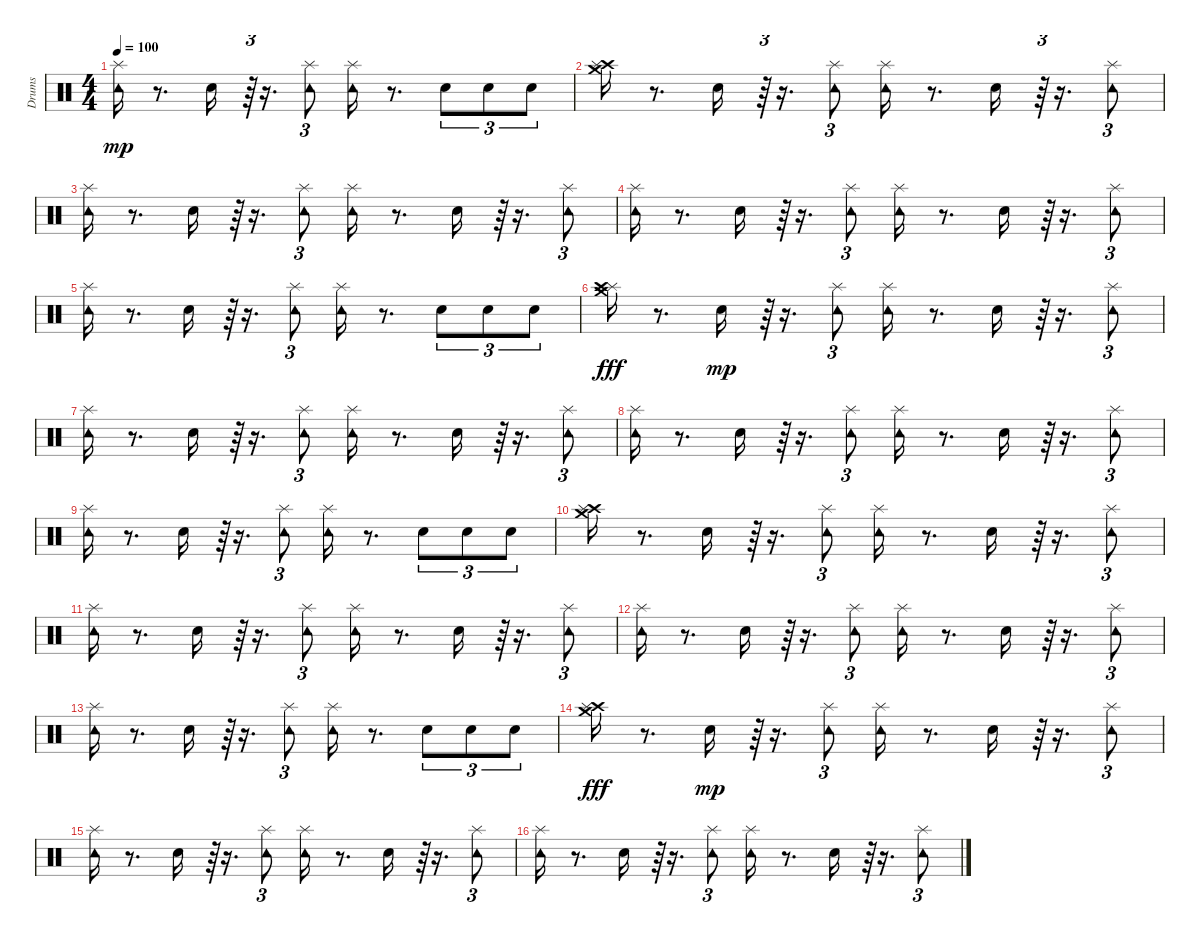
\track ("Drums" "Drums") {instrument percussion}
\staff {score}
\articulation defaults
\ts (4 4)
\tempo 100
\clef neutral
\ks c
("Tambourine (hit)" "Splash (hit)").16{dy mp} r.8{d} "Snare (hit)".16 r.64{tu (3 2)} r.16{d} ("Tambourine (hit)" "Splash (hit)").8{tu (3 2)} ("Tambourine (hit)" "Splash (hit)").16 r.8{d} "Snare (hit)".8{tu (3 2)} "Snare (hit)".8{tu (3 2)} "Snare (hit)".8{tu (3 2)} |
("Crash high (hit)" "Crash medium (hit)" "Splash (hit)").16 r.8{d} "Snare (hit)".16 r.64{tu (3 2)} r.16{d} ("Splash (hit)" "Tambourine (hit)").8{tu (3 2)} ("Splash (hit)" "Tambourine (hit)").16 r.8{d} "Snare (hit)".16 r.64{tu (3 2)} r.16{d} ("Splash (hit)" "Tambourine (hit)").8{tu (3 2)} |
("Splash (hit)" "Tambourine (hit)").16 r.8{d} "Snare (hit)".16 r.64{tu (3 2)} r.16{d} ("Splash (hit)" "Tambourine (hit)").8{tu (3 2)} ("Tambourine (hit)" "Splash (hit)").16 r.8{d} "Snare (hit)".16 r.64{tu (3 2)} r.16{d} ("Tambourine (hit)" "Splash (hit)").8{tu (3 2)} |
("Tambourine (hit)" "Splash (hit)").16 r.8{d} "Snare (hit)".16 r.64{tu (3 2)} r.16{d} ("Tambourine (hit)" "Splash (hit)").8{tu (3 2)} ("Tambourine (hit)" "Splash (hit)").16 r.8{d} "Snare (hit)".16 r.64{tu (3 2)} r.16{d} ("Tambourine (hit)" "Splash (hit)").8{tu (3 2)} |
("Splash (hit)" "Tambourine (hit)").16 r.8{d} "Snare (hit)".16 r.64{tu (3 2)} r.16{d} ("Tambourine (hit)" "Splash (hit)").8{tu (3 2)} ("Splash (hit)" "Tambourine (hit)").16 r.8{d} "Snare (hit)".8{tu (3 2)} "Snare (hit)".8{tu (3 2)} "Snare (hit)".8{tu (3 2)} |
("Splash (hit)" "Crash high (hit)" "Crash medium (hit)").16{dy fff} r.8{d} "Snare (hit)".16{dy mp} r.64{tu (3 2)} r.16{d} ("Splash (hit)" "Tambourine (hit)").8{tu (3 2)} ("Tambourine (hit)" "Splash (hit)").16 r.8{d} "Snare (hit)".16 r.64{tu (3 2)} r.16{d} ("Tambourine (hit)" "Splash (hit)").8{tu (3 2)} |
("Splash (hit)" "Tambourine (hit)").16 r.8{d} "Snare (hit)".16 r.64{tu (3 2)} r.16{d} ("Tambourine (hit)" "Splash (hit)").8{tu (3 2)} ("Splash (hit)" "Tambourine (hit)").16 r.8{d} "Snare (hit)".16 r.64{tu (3 2)} r.16{d} ("Tambourine (hit)" "Splash (hit)").8{tu (3 2)} |
("Splash (hit)" "Tambourine (hit)").16 r.8{d} "Snare (hit)".16 r.64{tu (3 2)} r.16{d} ("Splash (hit)" "Tambourine (hit)").8{tu (3 2)} ("Splash (hit)" "Tambourine (hit)").16 r.8{d} "Snare (hit)".16 r.64{tu (3 2)} r.16{d} ("Splash (hit)" "Tambourine (hit)").8{tu (3 2)} |
("Splash (hit)" "Tambourine (hit)").16 r.8{d} "Snare (hit)".16 r.64{tu (3 2)} r.16{d} ("Splash (hit)" "Tambourine (hit)").8{tu (3 2)} ("Splash (hit)" "Tambourine (hit)").16 r.8{d} "Snare (hit)".8{tu (3 2)} "Snare (hit)".8{tu (3 2)} "Snare (hit)".8{tu (3 2)} |
("Crash high (hit)" "Crash medium (hit)" "Splash (hit)").16 r.8{d} "Snare (hit)".16 r.64{tu (3 2)} r.16{d} ("Splash (hit)" "Tambourine (hit)").8{tu (3 2)} ("Splash (hit)" "Tambourine (hit)").16 r.8{d} "Snare (hit)".16 r.64{tu (3 2)} r.16{d} ("Splash (hit)" "Tambourine (hit)").8{tu (3 2)} |
("Tambourine (hit)" "Splash (hit)").16 r.8{d} "Snare (hit)".16 r.64{tu (3 2)} r.16{d} ("Tambourine (hit)" "Splash (hit)").8{tu (3 2)} ("Tambourine (hit)" "Splash (hit)").16 r.8{d} "Snare (hit)".16 r.64{tu (3 2)} r.16{d} ("Tambourine (hit)" "Splash (hit)").8{tu (3 2)} |
("Tambourine (hit)" "Splash (hit)").16 r.8{d} "Snare (hit)".16 r.64{tu (3 2)} r.16{d} ("Tambourine (hit)" "Splash (hit)").8{tu (3 2)} ("Tambourine (hit)" "Splash (hit)").16 r.8{d} "Snare (hit)".16 r.64{tu (3 2)} r.16{d} ("Tambourine (hit)" "Splash (hit)").8{tu (3 2)} |
("Tambourine (hit)" "Splash (hit)").16 r.8{d} "Snare (hit)".16 r.64{tu (3 2)} r.16{d} ("Splash (hit)" "Tambourine (hit)").8{tu (3 2)} ("Splash (hit)" "Tambourine (hit)").16 r.8{d} "Snare (hit)".8{tu (3 2)} "Snare (hit)".8{tu (3 2)} "Snare (hit)".8{tu (3 2)} |
("Crash high (hit)" "Splash (hit)" "Crash medium (hit)").16{dy fff} r.8{d} "Snare (hit)".16{dy mp} r.64{tu (3 2)} r.16{d} ("Splash (hit)" "Tambourine (hit)").8{tu (3 2)} ("Tambourine (hit)" "Splash (hit)").16 r.8{d} "Snare (hit)".16 r.64{tu (3 2)} r.16{d} ("Splash (hit)" "Tambourine (hit)").8{tu (3 2)} |
("Tambourine (hit)" "Splash (hit)").16 r.8{d} "Snare (hit)".16 r.64{tu (3 2)} r.16{d} ("Splash (hit)" "Tambourine (hit)").8{tu (3 2)} ("Splash (hit)" "Tambourine (hit)").16 r.8{d} "Snare (hit)".16 r.64{tu (3 2)} r.16{d} ("Splash (hit)" "Tambourine (hit)").8{tu (3 2)} |
("Tambourine (hit)" "Splash (hit)").16 r.8{d} "Snare (hit)".16 r.64{tu (3 2)} r.16{d} ("Splash (hit)" "Tambourine (hit)").8{tu (3 2)} ("Tambourine (hit)" "Splash (hit)").16 r.8{d} "Snare (hit)".16 r.64{tu (3 2)} r.16{d} ("Tambourine (hit)" "Splash (hit)").8{tu (3 2)}
